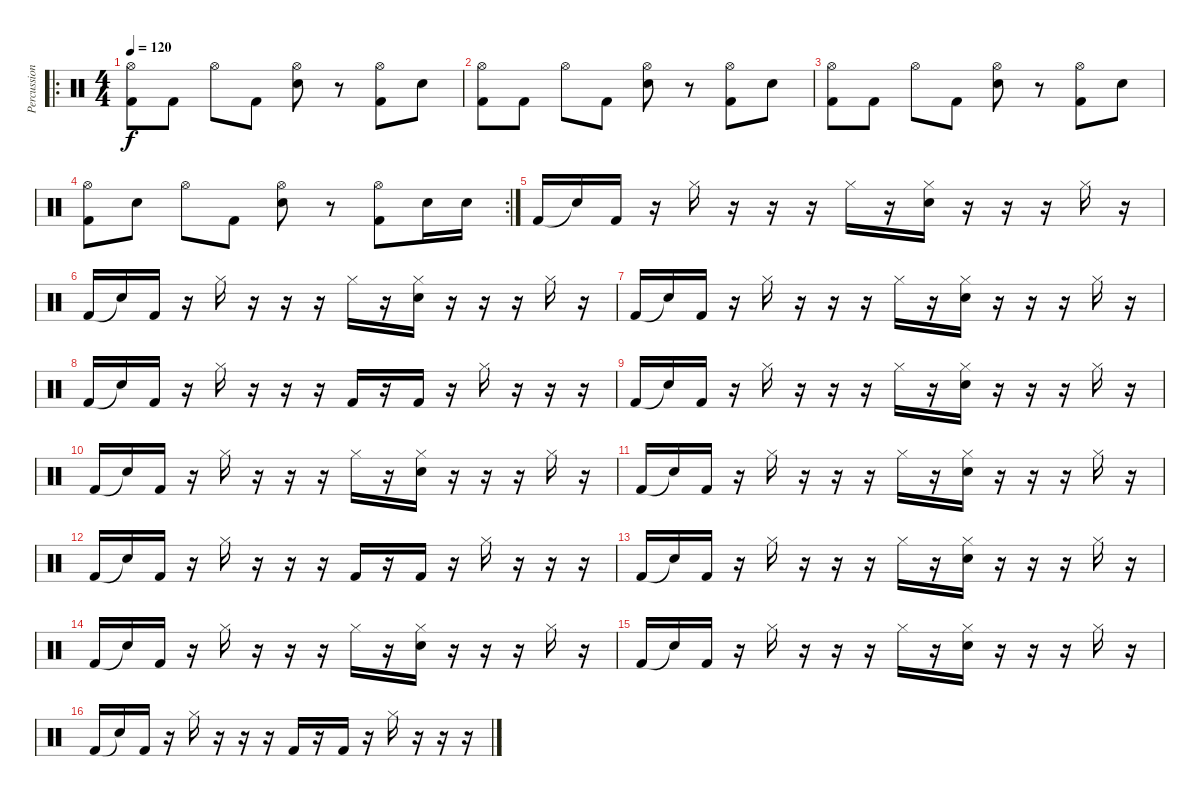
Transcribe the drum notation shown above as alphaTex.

\track ("Percussion" "Percussion") {instrument percussion}
\staff {score}
\articulation defaults
\ro
\ts (4 4)
\tempo 120
\clef neutral
\ks c
("Hi-Hat (open)" "Kick (hit) 2").8{dy f volume 13} "Kick (hit) 2".8 "Hi-Hat (open)".8 "Kick (hit) 2".8 ("Hi-Hat (open)" "Snare (hit) 2").8 r.8 ("Hi-Hat (open)" "Kick (hit) 2").8 "Snare (hit) 2".8 |
("Hi-Hat (open)" "Kick (hit) 2").8 "Kick (hit) 2".8 "Hi-Hat (open)".8 "Kick (hit) 2".8 ("Hi-Hat (open)" "Snare (hit) 2").8 r.8 ("Hi-Hat (open)" "Kick (hit) 2").8 "Snare (hit) 2".8 |
("Hi-Hat (open)" "Kick (hit) 2").8 "Kick (hit) 2".8 "Hi-Hat (open)".8 "Kick (hit) 2".8 ("Hi-Hat (open)" "Snare (hit) 2").8 r.8 ("Hi-Hat (open)" "Kick (hit) 2").8 "Snare (hit) 2".8 |
\rc 2
("Hi-Hat (open)" "Kick (hit) 2").8 "Snare (hit) 2".8 "Hi-Hat (open)".8 "Kick (hit) 2".8 ("Hi-Hat (open)" "Snare (hit) 2").8 r.8 ("Hi-Hat (open)" "Kick (hit) 2").8 "Snare (hit) 2".16 "Snare (hit) 2".16 |
"Kick (hit) 2".16{volume 16} "Snare (hit)"{t}.16 "Kick (hit) 2".16 r.16 "Hi-Hat (closed)".16 r.16 r.16 r.16 "Hi-Hat (closed)".16 r.16 ("Hi-Hat (closed)" "Snare (hit) 2").16 r.16 r.16 r.16 "Hi-Hat (closed)".16 r.16 |
"Kick (hit) 2".16{volume 16} "Snare (hit)"{t}.16 "Kick (hit) 2".16 r.16 "Hi-Hat (closed)".16 r.16 r.16 r.16 "Hi-Hat (closed)".16 r.16 ("Hi-Hat (closed)" "Snare (hit) 2").16 r.16 r.16 r.16 "Hi-Hat (closed)".16 r.16 |
"Kick (hit) 2".16{volume 16} "Snare (hit)"{t}.16 "Kick (hit) 2".16 r.16 "Hi-Hat (closed)".16 r.16 r.16 r.16 "Hi-Hat (closed)".16 r.16 ("Hi-Hat (closed)" "Snare (hit) 2").16 r.16 r.16 r.16 "Hi-Hat (closed)".16 r.16 |
"Kick (hit) 2".16{volume 16} "Snare (hit)"{t}.16 "Kick (hit) 2".16 r.16 "Hi-Hat (closed)".16 r.16 r.16 r.16 "Kick (hit) 2".16 r.16 "Kick (hit) 2".16 r.16 "Hi-Hat (closed)".16 r.16 r.16 r.16 |
"Kick (hit) 2".16{volume 16} "Snare (hit)"{t}.16 "Kick (hit) 2".16 r.16 "Hi-Hat (closed)".16 r.16 r.16 r.16 "Hi-Hat (closed)".16 r.16 ("Hi-Hat (closed)" "Snare (hit) 2").16 r.16 r.16 r.16 "Hi-Hat (closed)".16 r.16 |
"Kick (hit) 2".16{volume 16} "Snare (hit)"{t}.16 "Kick (hit) 2".16 r.16 "Hi-Hat (closed)".16 r.16 r.16 r.16 "Hi-Hat (closed)".16 r.16 ("Hi-Hat (closed)" "Snare (hit) 2").16 r.16 r.16 r.16 "Hi-Hat (closed)".16 r.16 |
"Kick (hit) 2".16{volume 16} "Snare (hit)"{t}.16 "Kick (hit) 2".16 r.16 "Hi-Hat (closed)".16 r.16 r.16 r.16 "Hi-Hat (closed)".16 r.16 ("Hi-Hat (closed)" "Snare (hit) 2").16 r.16 r.16 r.16 "Hi-Hat (closed)".16 r.16 |
"Kick (hit) 2".16{volume 16} "Snare (hit)"{t}.16 "Kick (hit) 2".16 r.16 "Hi-Hat (closed)".16 r.16 r.16 r.16 "Kick (hit) 2".16 r.16 "Kick (hit) 2".16 r.16 "Hi-Hat (closed)".16 r.16 r.16 r.16 |
"Kick (hit) 2".16{volume 16} "Snare (hit)"{t}.16 "Kick (hit) 2".16 r.16 "Hi-Hat (closed)".16 r.16 r.16 r.16 "Hi-Hat (closed)".16 r.16 ("Hi-Hat (closed)" "Snare (hit) 2").16 r.16 r.16 r.16 "Hi-Hat (closed)".16 r.16 |
"Kick (hit) 2".16{volume 16} "Snare (hit)"{t}.16 "Kick (hit) 2".16 r.16 "Hi-Hat (closed)".16 r.16 r.16 r.16 "Hi-Hat (closed)".16 r.16 ("Hi-Hat (closed)" "Snare (hit) 2").16 r.16 r.16 r.16 "Hi-Hat (closed)".16 r.16 |
"Kick (hit) 2".16{volume 16} "Snare (hit)"{t}.16 "Kick (hit) 2".16 r.16 "Hi-Hat (closed)".16 r.16 r.16 r.16 "Hi-Hat (closed)".16 r.16 ("Hi-Hat (closed)" "Snare (hit) 2").16 r.16 r.16 r.16 "Hi-Hat (closed)".16 r.16 |
"Kick (hit) 2".16{volume 16} "Snare (hit)"{t}.16 "Kick (hit) 2".16 r.16 "Hi-Hat (closed)".16 r.16 r.16 r.16 "Kick (hit) 2".16 r.16 "Kick (hit) 2".16 r.16 "Hi-Hat (closed)".16 r.16 r.16 r.16
